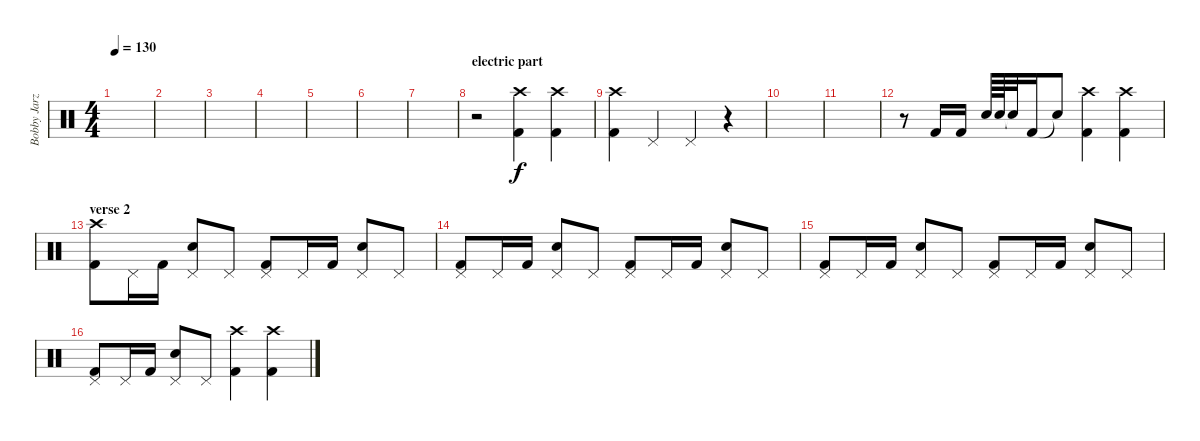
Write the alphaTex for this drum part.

\track ("Bobby Jarzombek" "Bobby Jarz") {instrument percussion}
\staff {score}
\articulation defaults
\ts (4 4)
\tempo 130
\clef neutral
\ks c
|
|
|
|
|
|
|
\section ("" "electric part")
r.2 ("Kick (hit) 2" "Crash high (hit)").4 ("Kick (hit) 2" "Crash high (hit)").4 |
("Kick (hit) 2" "Crash high (hit)").4 "Pedal Hi-Hat (hit)".4 "Pedal Hi-Hat (hit)".4 r.4 |
|
|
r.8 "Kick (hit) 2".16 "Kick (hit) 2".16 "Snare (hit) 2".64 "Snare (hit) 2".64 "Snare (hit)"{t}.32 "Kick (hit) 2".16 "Snare (hit)"{t}.8 ("Kick (hit) 2" "Crash high (hit)").4 ("Kick (hit) 2" "Crash high (hit)").4 |
\section ("" "verse 2")
("Kick (hit) 2" "Crash high (hit)").8 "Pedal Hi-Hat (hit)".16 "Kick (hit) 2".16 ("Pedal Hi-Hat (hit)" "Snare (hit) 2").8 "Pedal Hi-Hat (hit)".8 ("Kick (hit) 2" "Pedal Hi-Hat (hit)").8 "Pedal Hi-Hat (hit)".16 "Kick (hit) 2".16 ("Pedal Hi-Hat (hit)" "Snare (hit) 2").8 "Pedal Hi-Hat (hit)".8 |
("Kick (hit) 2" "Pedal Hi-Hat (hit)").8 "Pedal Hi-Hat (hit)".16 "Kick (hit) 2".16 ("Pedal Hi-Hat (hit)" "Snare (hit) 2").8 "Pedal Hi-Hat (hit)".8 ("Kick (hit) 2" "Pedal Hi-Hat (hit)").8 "Pedal Hi-Hat (hit)".16 "Kick (hit) 2".16 ("Pedal Hi-Hat (hit)" "Snare (hit) 2").8 "Pedal Hi-Hat (hit)".8 |
("Kick (hit) 2" "Pedal Hi-Hat (hit)").8 "Pedal Hi-Hat (hit)".16 "Kick (hit) 2".16 ("Pedal Hi-Hat (hit)" "Snare (hit) 2").8 "Pedal Hi-Hat (hit)".8 ("Kick (hit) 2" "Pedal Hi-Hat (hit)").8 "Pedal Hi-Hat (hit)".16 "Kick (hit) 2".16 ("Pedal Hi-Hat (hit)" "Snare (hit) 2").8 "Pedal Hi-Hat (hit)".8 |
("Kick (hit) 2" "Pedal Hi-Hat (hit)").8 "Pedal Hi-Hat (hit)".16 "Kick (hit) 2".16 ("Pedal Hi-Hat (hit)" "Snare (hit) 2").8 "Pedal Hi-Hat (hit)".8 ("Kick (hit) 2" "Crash high (hit)").4 ("Kick (hit) 2" "Crash high (hit)").4
